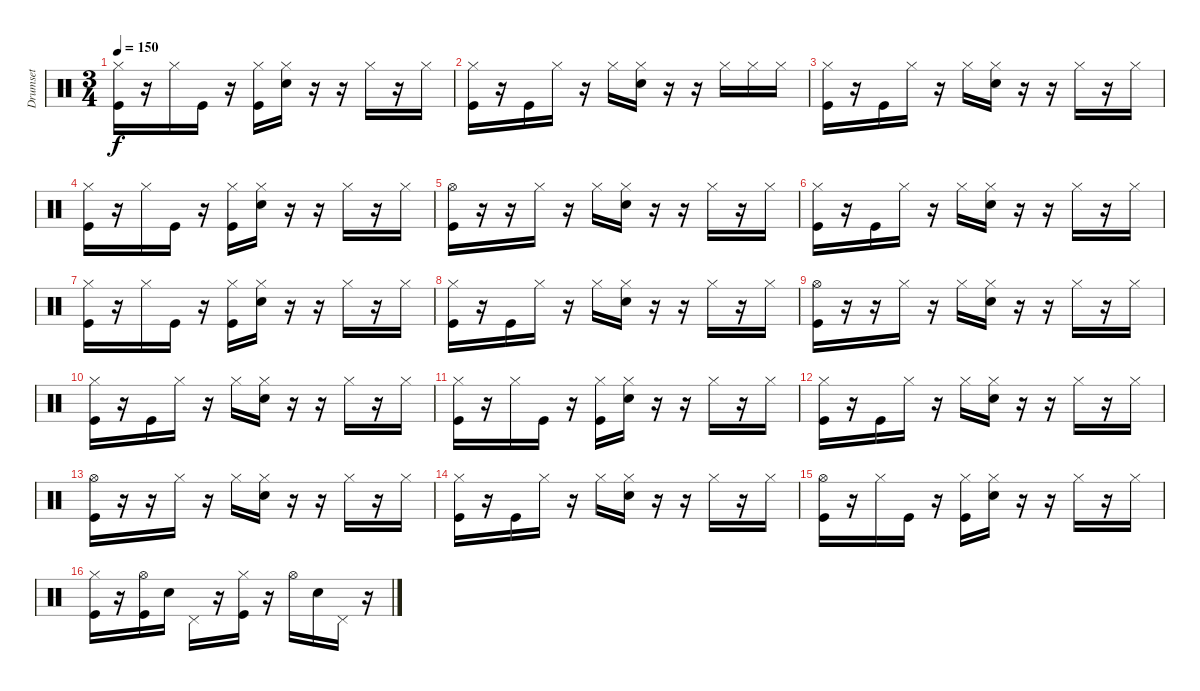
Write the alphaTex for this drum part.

\track ("Drumset" "Drumset") {instrument percussion}
\staff {score}
\articulation defaults
\ts (3 4)
\tempo 150
\clef neutral
\ks c
("Hi-Hat (closed)" "Kick (hit)").16{dy f} r.16 "Hi-Hat (closed)".16 "Kick (hit)".16 r.16 ("Hi-Hat (closed)" "Kick (hit)").16 ("Hi-Hat (closed)" "Snare (hit) 2").16 r.16 r.16 "Hi-Hat (closed)".16 r.16 "Hi-Hat (closed)".16 |
("Hi-Hat (closed)" "Kick (hit)").16 r.16 "Kick (hit)".16 "Hi-Hat (closed)".16 r.16 "Hi-Hat (closed)".16 ("Hi-Hat (closed)" "Snare (hit) 2").16 r.16 r.16 "Hi-Hat (closed)".16 "Hi-Hat (closed)".16 "Hi-Hat (closed)".16 |
("Hi-Hat (closed)" "Kick (hit)").16 r.16 "Kick (hit)".16 "Hi-Hat (closed)".16 r.16 "Hi-Hat (closed)".16 ("Hi-Hat (closed)" "Snare (hit) 2").16 r.16 r.16 "Hi-Hat (closed)".16 r.16 "Hi-Hat (closed)".16 |
("Hi-Hat (closed)" "Kick (hit)").16 r.16 "Hi-Hat (closed)".16 "Kick (hit)".16 r.16 ("Hi-Hat (closed)" "Kick (hit)").16 ("Hi-Hat (closed)" "Snare (hit) 2").16 r.16 r.16 "Hi-Hat (closed)".16 r.16 "Hi-Hat (closed)".16 |
("Hi-Hat (open)" "Kick (hit)").16 r.16 r.16 "Hi-Hat (closed)".16 r.16 "Hi-Hat (closed)".16 ("Hi-Hat (closed)" "Snare (hit) 2").16 r.16 r.16 "Hi-Hat (closed)".16 r.16 "Hi-Hat (closed)".16 |
("Hi-Hat (closed)" "Kick (hit)").16 r.16 "Kick (hit)".16 "Hi-Hat (closed)".16 r.16 "Hi-Hat (closed)".16 ("Hi-Hat (closed)" "Snare (hit) 2").16 r.16 r.16 "Hi-Hat (closed)".16 r.16 "Hi-Hat (closed)".16 |
("Hi-Hat (closed)" "Kick (hit)").16 r.16 "Hi-Hat (closed)".16 "Kick (hit)".16 r.16 ("Hi-Hat (closed)" "Kick (hit)").16 ("Hi-Hat (closed)" "Snare (hit) 2").16 r.16 r.16 "Hi-Hat (closed)".16 r.16 "Hi-Hat (closed)".16 |
("Hi-Hat (closed)" "Kick (hit)").16 r.16 "Kick (hit)".16 "Hi-Hat (closed)".16 r.16 "Hi-Hat (closed)".16 ("Hi-Hat (closed)" "Snare (hit) 2").16 r.16 r.16 "Hi-Hat (closed)".16 r.16 "Hi-Hat (closed)".16 |
("Hi-Hat (open)" "Kick (hit)").16 r.16 r.16 "Hi-Hat (closed)".16 r.16 "Hi-Hat (closed)".16 ("Hi-Hat (closed)" "Snare (hit) 2").16 r.16 r.16 "Hi-Hat (closed)".16 r.16 "Hi-Hat (closed)".16 |
("Hi-Hat (closed)" "Kick (hit)").16 r.16 "Kick (hit)".16 "Hi-Hat (closed)".16 r.16 "Hi-Hat (closed)".16 ("Hi-Hat (closed)" "Snare (hit) 2").16 r.16 r.16 "Hi-Hat (closed)".16 r.16 "Hi-Hat (closed)".16 |
("Hi-Hat (closed)" "Kick (hit)").16 r.16 "Hi-Hat (closed)".16 "Kick (hit)".16 r.16 ("Hi-Hat (closed)" "Kick (hit)").16 ("Hi-Hat (closed)" "Snare (hit) 2").16 r.16 r.16 "Hi-Hat (closed)".16 r.16 "Hi-Hat (closed)".16 |
("Hi-Hat (closed)" "Kick (hit)").16 r.16 "Kick (hit)".16 "Hi-Hat (closed)".16 r.16 "Hi-Hat (closed)".16 ("Hi-Hat (closed)" "Snare (hit) 2").16 r.16 r.16 "Hi-Hat (closed)".16 r.16 "Hi-Hat (closed)".16 |
("Hi-Hat (open)" "Kick (hit)").16 r.16 r.16 "Hi-Hat (closed)".16 r.16 "Hi-Hat (closed)".16 ("Hi-Hat (closed)" "Snare (hit) 2").16 r.16 r.16 "Hi-Hat (closed)".16 r.16 "Hi-Hat (closed)".16 |
("Hi-Hat (closed)" "Kick (hit)").16 r.16 "Kick (hit)".16 "Hi-Hat (closed)".16 r.16 "Hi-Hat (closed)".16 ("Hi-Hat (closed)" "Snare (hit) 2").16 r.16 r.16 "Hi-Hat (closed)".16 r.16 "Hi-Hat (closed)".16 |
("Hi-Hat (open)" "Kick (hit)").16 r.16 "Hi-Hat (closed)".16 "Kick (hit)".16 r.16 ("Hi-Hat (closed)" "Kick (hit)").16 ("Hi-Hat (closed)" "Snare (hit) 2").16 r.16 r.16 "Hi-Hat (closed)".16 r.16 "Hi-Hat (closed)".16 |
("Hi-Hat (closed)" "Kick (hit)").16 r.16 ("Hi-Hat (open)" "Kick (hit)").16 "Snare (hit) 2".16 "Pedal Hi-Hat (hit)".16 r.16 ("Hi-Hat (closed)" "Kick (hit)").16 r.16 "Hi-Hat (open)".16 "Snare (hit) 2".16 "Pedal Hi-Hat (hit)".16 r.16
